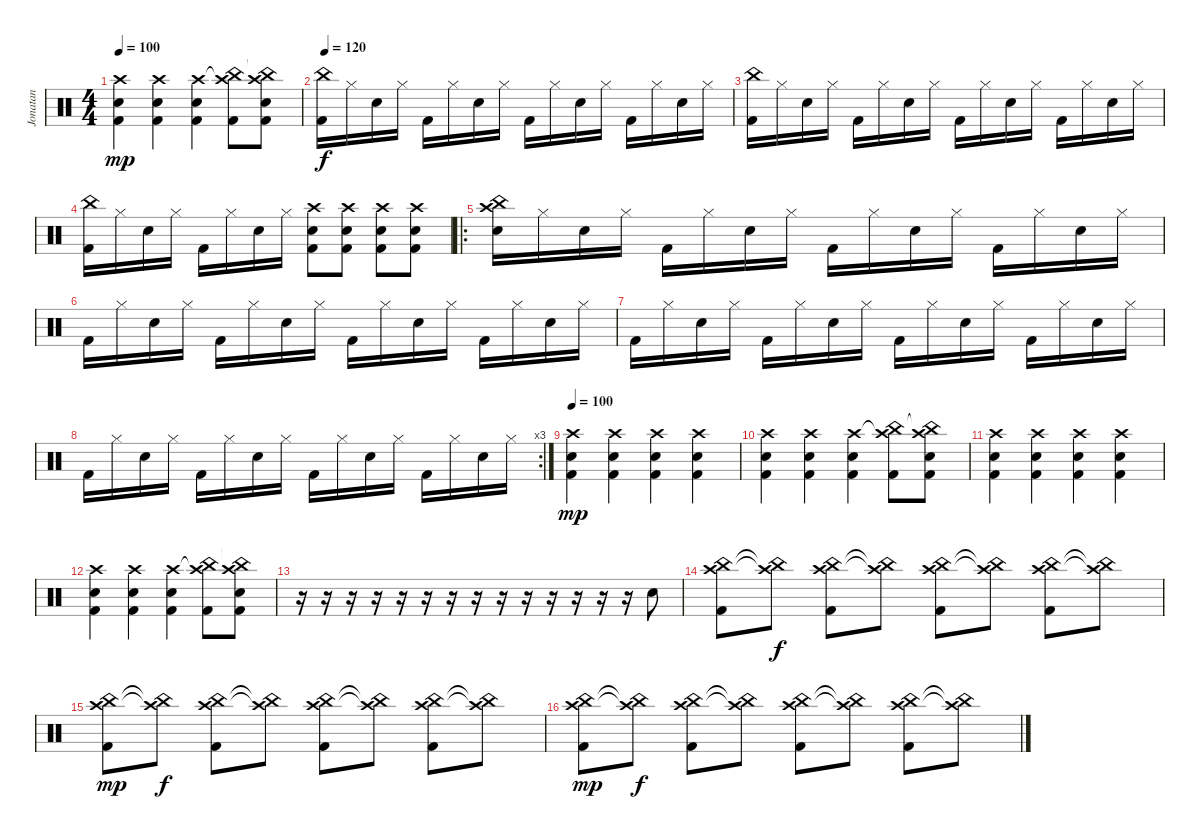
\track ("Jonatan" "Jonatan") {instrument percussion}
\staff {score}
\articulation defaults
\ts (4 4)
\tempo 100
\clef neutral
\ks c
("Crash high (hit)" "Electric Snare (hit)" "Kick (hit) 2").4{dy mp} ("Crash high (hit)" "Electric Snare (hit)" "Kick (hit) 2").4 ("Crash high (hit)" "Electric Snare (hit)" "Kick (hit) 2").4 ("Crash high (hit)"{t} "China (hit)" "Kick (hit) 2").8 ("Crash high (hit)" "China (hit)"{t} "Electric Snare (hit)" "Kick (hit) 2").8 |
\tempo 120
("China (hit)" "Kick (hit) 2").16{dy f} "Hi-Hat (closed)".16 "Electric Snare (hit)".16 "Hi-Hat (closed)".16 "Kick (hit) 2".16 "Hi-Hat (closed)".16 "Electric Snare (hit)".16 "Hi-Hat (closed)".16 "Kick (hit) 2".16 "Hi-Hat (closed)".16 "Electric Snare (hit)".16 "Hi-Hat (closed)".16 "Kick (hit) 2".16 "Hi-Hat (closed)".16 "Electric Snare (hit)".16 "Hi-Hat (closed)".16 |
("China (hit)" "Kick (hit) 2").16 "Hi-Hat (closed)".16 "Electric Snare (hit)".16 "Hi-Hat (closed)".16 "Kick (hit) 2".16 "Hi-Hat (closed)".16 "Electric Snare (hit)".16 "Hi-Hat (closed)".16 "Kick (hit) 2".16 "Hi-Hat (closed)".16 "Electric Snare (hit)".16 "Hi-Hat (closed)".16 "Kick (hit) 2".16 "Hi-Hat (closed)".16 "Electric Snare (hit)".16 "Hi-Hat (closed)".16 |
("China (hit)" "Kick (hit) 2").16 "Hi-Hat (closed)".16 "Electric Snare (hit)".16 "Hi-Hat (closed)".16 "Kick (hit) 2".16 "Hi-Hat (closed)".16 "Electric Snare (hit)".16 "Hi-Hat (closed)".16 ("Crash high (hit)" "Electric Snare (hit)" "Kick (hit) 2").8 ("Crash high (hit)" "Electric Snare (hit)" "Kick (hit) 2").8 ("Crash high (hit)" "Electric Snare (hit)" "Kick (hit) 2").8 ("Crash high (hit)" "Electric Snare (hit)" "Kick (hit) 2").8 |
\ro
("Crash high (hit)" "China (hit)" "Electric Snare (hit)").16 "Hi-Hat (closed)".16 "Electric Snare (hit)".16 "Hi-Hat (closed)".16 "Kick (hit) 2".16 "Hi-Hat (closed)".16 "Electric Snare (hit)".16 "Hi-Hat (closed)".16 "Kick (hit) 2".16 "Hi-Hat (closed)".16 "Electric Snare (hit)".16 "Hi-Hat (closed)".16 "Kick (hit) 2".16 "Hi-Hat (closed)".16 "Electric Snare (hit)".16 "Hi-Hat (closed)".16 |
"Kick (hit) 2".16 "Hi-Hat (closed)".16 "Electric Snare (hit)".16 "Hi-Hat (closed)".16 "Kick (hit) 2".16 "Hi-Hat (closed)".16 "Electric Snare (hit)".16 "Hi-Hat (closed)".16 "Kick (hit) 2".16 "Hi-Hat (closed)".16 "Electric Snare (hit)".16 "Hi-Hat (closed)".16 "Kick (hit) 2".16 "Hi-Hat (closed)".16 "Electric Snare (hit)".16 "Hi-Hat (closed)".16 |
"Kick (hit) 2".16 "Hi-Hat (closed)".16 "Electric Snare (hit)".16 "Hi-Hat (closed)".16 "Kick (hit) 2".16 "Hi-Hat (closed)".16 "Electric Snare (hit)".16 "Hi-Hat (closed)".16 "Kick (hit) 2".16 "Hi-Hat (closed)".16 "Electric Snare (hit)".16 "Hi-Hat (closed)".16 "Kick (hit) 2".16 "Hi-Hat (closed)".16 "Electric Snare (hit)".16 "Hi-Hat (closed)".16 |
\rc 3 "Kick (hit) 2".16 "Hi-Hat (closed)".16 "Electric Snare (hit)".16 "Hi-Hat (closed)".16 "Kick (hit) 2".16 "Hi-Hat (closed)".16 "Electric Snare (hit)".16 "Hi-Hat (closed)".16 "Kick (hit) 2".16 "Hi-Hat (closed)".16 "Electric Snare (hit)".16 "Hi-Hat (closed)".16 "Kick (hit) 2".16 "Hi-Hat (closed)".16 "Electric Snare (hit)".16 "Hi-Hat (closed)".16
|
\tempo 100
("Crash high (hit)" "Electric Snare (hit)" "Kick (hit) 2").4{dy mp} ("Crash high (hit)" "Electric Snare (hit)" "Kick (hit) 2").4 ("Crash high (hit)" "Electric Snare (hit)" "Kick (hit) 2").4 ("Crash high (hit)" "Electric Snare (hit)" "Kick (hit) 2").4 |
("Crash high (hit)" "Electric Snare (hit)" "Kick (hit) 2").4 ("Crash high (hit)" "Electric Snare (hit)" "Kick (hit) 2").4 ("Crash high (hit)" "Electric Snare (hit)" "Kick (hit) 2").4 ("Crash high (hit)"{t} "China (hit)" "Kick (hit) 2").8 ("Crash high (hit)" "China (hit)"{t} "Electric Snare (hit)" "Kick (hit) 2").8 |
("Crash high (hit)" "Electric Snare (hit)" "Kick (hit) 2").4 ("Crash high (hit)" "Electric Snare (hit)" "Kick (hit) 2").4 ("Crash high (hit)" "Electric Snare (hit)" "Kick (hit) 2").4 ("Crash high (hit)" "Electric Snare (hit)" "Kick (hit) 2").4 |
("Crash high (hit)" "Electric Snare (hit)" "Kick (hit) 2").4 ("Crash high (hit)" "Electric Snare (hit)" "Kick (hit) 2").4 ("Crash high (hit)" "Electric Snare (hit)" "Kick (hit) 2").4 ("Crash high (hit)"{t} "China (hit)" "Kick (hit) 2").8 ("Crash high (hit)" "China (hit)"{t} "Electric Snare (hit)" "Kick (hit) 2").8 |
r.16 r.16 r.16 r.16 r.16 r.16 r.16 r.16 r.16 r.16 r.16 r.16 r.16 r.16 "Electric Snare (hit)".8 |
("Crash high (hit)" "China (hit)" "Kick (hit) 2").8 ("Crash high (hit)"{t} "China (hit)"{t}).8{dy f} ("Crash high (hit)" "China (hit)" "Kick (hit) 2").8 ("Crash high (hit)"{t} "China (hit)"{t}).8 ("Crash high (hit)" "China (hit)" "Kick (hit) 2").8 ("Crash high (hit)"{t} "China (hit)"{t}).8 ("Crash high (hit)" "China (hit)" "Kick (hit) 2").8 ("Crash high (hit)"{t} "China (hit)"{t}).8 |
("Crash high (hit)" "China (hit)" "Kick (hit) 2").8{dy mp} ("Crash high (hit)"{t} "China (hit)"{t}).8{dy f} ("Crash high (hit)" "China (hit)" "Kick (hit) 2").8 ("Crash high (hit)"{t} "China (hit)"{t}).8 ("Crash high (hit)" "China (hit)" "Kick (hit) 2").8 ("Crash high (hit)"{t} "China (hit)"{t}).8 ("Crash high (hit)" "China (hit)" "Kick (hit) 2").8 ("Crash high (hit)"{t} "China (hit)"{t}).8 |
("Crash high (hit)" "China (hit)" "Kick (hit) 2").8{dy mp} ("Crash high (hit)"{t} "China (hit)"{t}).8{dy f} ("Crash high (hit)" "China (hit)" "Kick (hit) 2").8 ("Crash high (hit)"{t} "China (hit)"{t}).8 ("Crash high (hit)" "China (hit)" "Kick (hit) 2").8 ("Crash high (hit)"{t} "China (hit)"{t}).8 ("Crash high (hit)" "China (hit)" "Kick (hit) 2").8 ("Crash high (hit)"{t} "China (hit)"{t}).8
